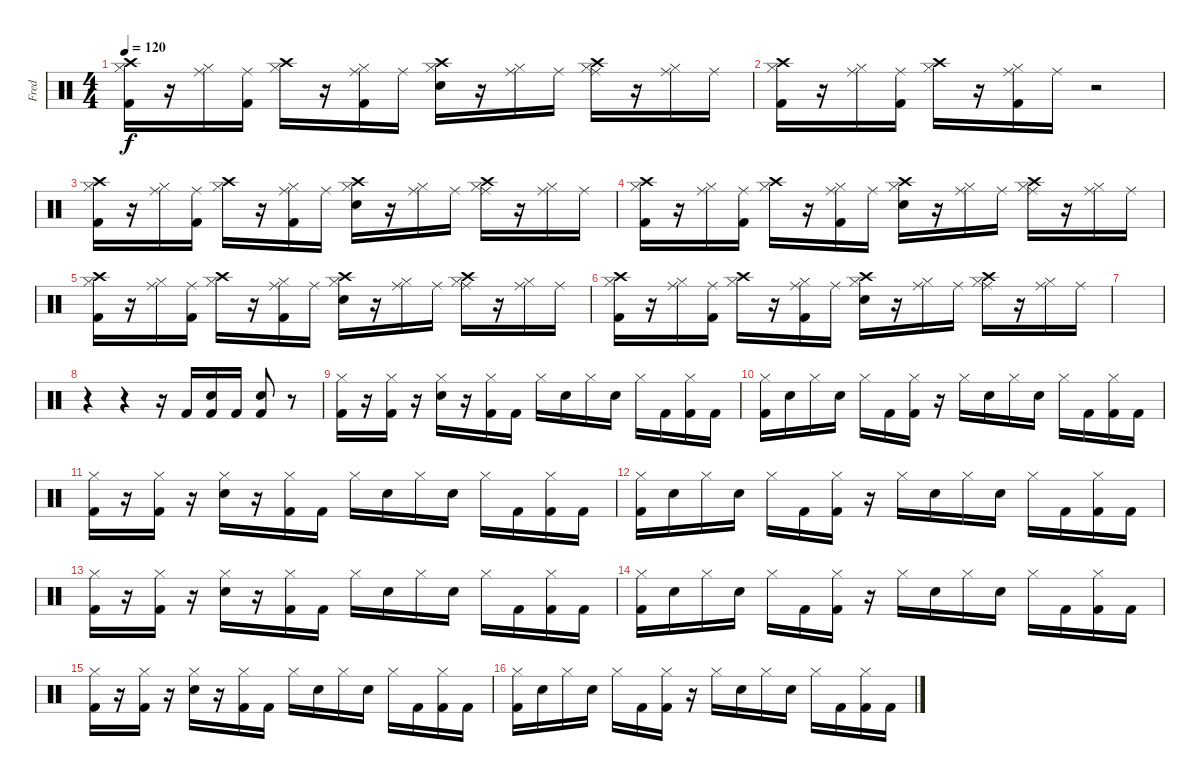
\track ("Fred " "Fred ") {instrument percussion}
\staff {score}
\articulation defaults
\ts (4 4)
\tempo 120
\clef neutral
\ks c
("Hi-Hat (closed)" "Crash high (hit)" "Kick (hit) 2").16{dy f} r.16 ("Hi-Hat (closed)" "Ride (middle)").16 ("Ride (middle)" "Kick (hit) 2").16 ("Hi-Hat (closed)" "Crash high (hit)").16 r.16 ("Hi-Hat (closed)" "Ride (middle)" "Kick (hit) 2").16 "Ride (middle)".16 ("Hi-Hat (closed)" "Crash high (hit)" "Electric Snare (hit)").16 r.16 ("Hi-Hat (closed)" "Ride (middle)").16 "Ride (middle)".16 ("Hi-Hat (closed)" "Crash high (hit)" "Ride (middle)").16 r.16 ("Hi-Hat (closed)" "Ride (middle)").16 "Ride (middle)".16 |
("Hi-Hat (closed)" "Crash high (hit)" "Kick (hit) 2").16 r.16 ("Hi-Hat (closed)" "Ride (middle)").16 ("Ride (middle)" "Kick (hit) 2").16 ("Hi-Hat (closed)" "Crash high (hit)").16 r.16 ("Hi-Hat (closed)" "Ride (middle)" "Kick (hit) 2").16 "Ride (middle)".16 r.2 |
("Hi-Hat (closed)" "Crash high (hit)" "Kick (hit) 2").16 r.16 ("Hi-Hat (closed)" "Ride (middle)").16 ("Ride (middle)" "Kick (hit) 2").16 ("Hi-Hat (closed)" "Crash high (hit)").16 r.16 ("Hi-Hat (closed)" "Ride (middle)" "Kick (hit) 2").16 "Ride (middle)".16 ("Hi-Hat (closed)" "Crash high (hit)" "Electric Snare (hit)").16 r.16 ("Hi-Hat (closed)" "Ride (middle)").16 "Ride (middle)".16 ("Hi-Hat (closed)" "Crash high (hit)" "Ride (middle)").16 r.16 ("Hi-Hat (closed)" "Ride (middle)").16 "Ride (middle)".16 |
("Hi-Hat (closed)" "Crash high (hit)" "Kick (hit) 2").16 r.16 ("Hi-Hat (closed)" "Ride (middle)").16 ("Ride (middle)" "Kick (hit) 2").16 ("Hi-Hat (closed)" "Crash high (hit)").16 r.16 ("Hi-Hat (closed)" "Ride (middle)" "Kick (hit) 2").16 "Ride (middle)".16 ("Hi-Hat (closed)" "Crash high (hit)" "Electric Snare (hit)").16 r.16 ("Hi-Hat (closed)" "Ride (middle)").16 "Ride (middle)".16 ("Hi-Hat (closed)" "Crash high (hit)" "Ride (middle)").16 r.16 ("Hi-Hat (closed)" "Ride (middle)").16 "Ride (middle)".16 |
("Hi-Hat (closed)" "Crash high (hit)" "Kick (hit) 2").16 r.16 ("Hi-Hat (closed)" "Ride (middle)").16 ("Ride (middle)" "Kick (hit) 2").16 ("Hi-Hat (closed)" "Crash high (hit)").16 r.16 ("Hi-Hat (closed)" "Ride (middle)" "Kick (hit) 2").16 "Ride (middle)".16 ("Hi-Hat (closed)" "Crash high (hit)" "Electric Snare (hit)").16 r.16 ("Hi-Hat (closed)" "Ride (middle)").16 "Ride (middle)".16 ("Hi-Hat (closed)" "Crash high (hit)" "Ride (middle)").16 r.16 ("Hi-Hat (closed)" "Ride (middle)").16 "Ride (middle)".16 |
("Hi-Hat (closed)" "Crash high (hit)" "Kick (hit) 2").16 r.16 ("Hi-Hat (closed)" "Ride (middle)").16 ("Ride (middle)" "Kick (hit) 2").16 ("Hi-Hat (closed)" "Crash high (hit)").16 r.16 ("Hi-Hat (closed)" "Ride (middle)" "Kick (hit) 2").16 "Ride (middle)".16 ("Hi-Hat (closed)" "Crash high (hit)" "Electric Snare (hit)").16 r.16 ("Hi-Hat (closed)" "Ride (middle)").16 "Ride (middle)".16 ("Hi-Hat (closed)" "Crash high (hit)" "Ride (middle)").16 r.16 ("Hi-Hat (closed)" "Ride (middle)").16 "Ride (middle)".16 |
|
r.4 r.4 r.16 "Kick (hit) 2".16 ("Kick (hit) 2" "Electric Snare (hit)").16 "Kick (hit) 2".16 ("Kick (hit) 2" "Electric Snare (hit)").8 r.8 |
("Hi-Hat (closed)" "Kick (hit) 2").16 r.16 ("Hi-Hat (closed)" "Kick (hit) 2").16 r.16 ("Hi-Hat (closed)" "Electric Snare (hit)").16 r.16 ("Hi-Hat (closed)" "Kick (hit) 2").16 "Kick (hit) 2".16 "Hi-Hat (closed)".16 "Electric Snare (hit)".16 "Hi-Hat (closed)".16 "Electric Snare (hit)".16 "Hi-Hat (closed)".16 "Kick (hit) 2".16 ("Hi-Hat (closed)" "Kick (hit) 2").16 "Kick (hit) 2".16 |
("Hi-Hat (closed)" "Kick (hit) 2").16 "Electric Snare (hit)".16 "Hi-Hat (closed)".16 "Electric Snare (hit)".16 "Hi-Hat (closed)".16 "Kick (hit) 2".16 ("Hi-Hat (closed)" "Kick (hit) 2").16 r.16 "Hi-Hat (closed)".16 "Electric Snare (hit)".16 "Hi-Hat (closed)".16 "Electric Snare (hit)".16 "Hi-Hat (closed)".16 "Kick (hit) 2".16 ("Hi-Hat (closed)" "Kick (hit) 2").16 "Kick (hit) 2".16 |
("Hi-Hat (closed)" "Kick (hit) 2").16 r.16 ("Hi-Hat (closed)" "Kick (hit) 2").16 r.16 ("Hi-Hat (closed)" "Electric Snare (hit)").16 r.16 ("Hi-Hat (closed)" "Kick (hit) 2").16 "Kick (hit) 2".16 "Hi-Hat (closed)".16 "Electric Snare (hit)".16 "Hi-Hat (closed)".16 "Electric Snare (hit)".16 "Hi-Hat (closed)".16 "Kick (hit) 2".16 ("Hi-Hat (closed)" "Kick (hit) 2").16 "Kick (hit) 2".16 |
("Hi-Hat (closed)" "Kick (hit) 2").16 "Electric Snare (hit)".16 "Hi-Hat (closed)".16 "Electric Snare (hit)".16 "Hi-Hat (closed)".16 "Kick (hit) 2".16 ("Hi-Hat (closed)" "Kick (hit) 2").16 r.16 "Hi-Hat (closed)".16 "Electric Snare (hit)".16 "Hi-Hat (closed)".16 "Electric Snare (hit)".16 "Hi-Hat (closed)".16 "Kick (hit) 2".16 ("Hi-Hat (closed)" "Kick (hit) 2").16 "Kick (hit) 2".16 |
("Hi-Hat (closed)" "Kick (hit) 2").16 r.16 ("Hi-Hat (closed)" "Kick (hit) 2").16 r.16 ("Hi-Hat (closed)" "Electric Snare (hit)").16 r.16 ("Hi-Hat (closed)" "Kick (hit) 2").16 "Kick (hit) 2".16 "Hi-Hat (closed)".16 "Electric Snare (hit)".16 "Hi-Hat (closed)".16 "Electric Snare (hit)".16 "Hi-Hat (closed)".16 "Kick (hit) 2".16 ("Hi-Hat (closed)" "Kick (hit) 2").16 "Kick (hit) 2".16 |
("Hi-Hat (closed)" "Kick (hit) 2").16 "Electric Snare (hit)".16 "Hi-Hat (closed)".16 "Electric Snare (hit)".16 "Hi-Hat (closed)".16 "Kick (hit) 2".16 ("Hi-Hat (closed)" "Kick (hit) 2").16 r.16 "Hi-Hat (closed)".16 "Electric Snare (hit)".16 "Hi-Hat (closed)".16 "Electric Snare (hit)".16 "Hi-Hat (closed)".16 "Kick (hit) 2".16 ("Hi-Hat (closed)" "Kick (hit) 2").16 "Kick (hit) 2".16 |
("Hi-Hat (closed)" "Kick (hit) 2").16 r.16 ("Hi-Hat (closed)" "Kick (hit) 2").16 r.16 ("Hi-Hat (closed)" "Electric Snare (hit)").16 r.16 ("Hi-Hat (closed)" "Kick (hit) 2").16 "Kick (hit) 2".16 "Hi-Hat (closed)".16 "Electric Snare (hit)".16 "Hi-Hat (closed)".16 "Electric Snare (hit)".16 "Hi-Hat (closed)".16 "Kick (hit) 2".16 ("Hi-Hat (closed)" "Kick (hit) 2").16 "Kick (hit) 2".16 |
("Hi-Hat (closed)" "Kick (hit) 2").16 "Electric Snare (hit)".16 "Hi-Hat (closed)".16 "Electric Snare (hit)".16 "Hi-Hat (closed)".16 "Kick (hit) 2".16 ("Hi-Hat (closed)" "Kick (hit) 2").16 r.16 "Hi-Hat (closed)".16 "Electric Snare (hit)".16 "Hi-Hat (closed)".16 "Electric Snare (hit)".16 "Hi-Hat (closed)".16 "Kick (hit) 2".16 ("Hi-Hat (closed)" "Kick (hit) 2").16 "Kick (hit) 2".16
